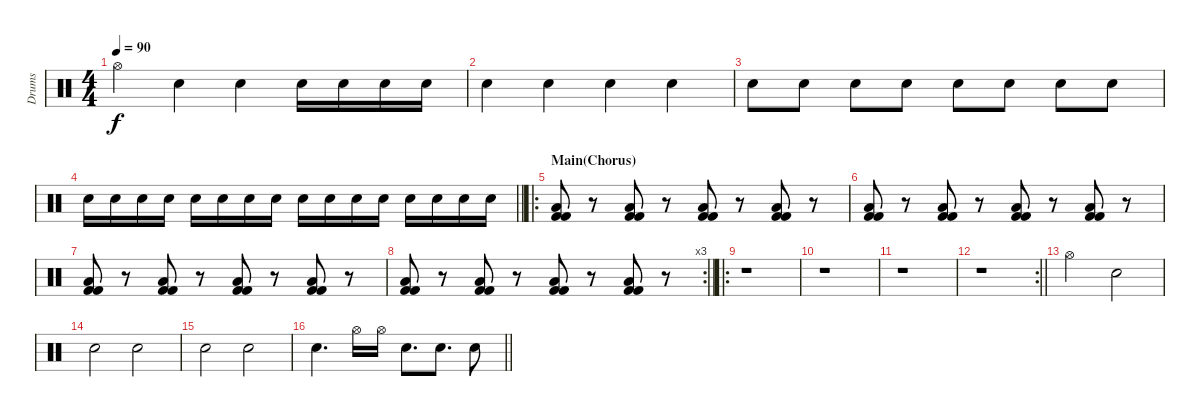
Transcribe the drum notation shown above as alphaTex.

\track ("Drums" "Drums") {instrument percussion}
\staff {score}
\articulation defaults
\ts (4 4)
\tempo 90
\clef neutral
\ks c "Hi-Hat (open)".4{dy f} "Snare (hit) 2".4 "Snare (hit) 2".4 "Snare (hit) 2".16 "Snare (hit) 2".16 "Snare (hit) 2".16 "Snare (hit) 2".16
|
"Snare (hit) 2".4 "Snare (hit) 2".4 "Snare (hit) 2".4 "Snare (hit) 2".4 |
"Snare (hit) 2".8 "Snare (hit) 2".8 "Snare (hit) 2".8 "Snare (hit) 2".8 "Snare (hit) 2".8 "Snare (hit) 2".8 "Snare (hit) 2".8 "Snare (hit) 2".8 |
\barLineRight lightlight "Snare (hit) 2".16 "Snare (hit) 2".16 "Snare (hit) 2".16 "Snare (hit) 2".16 "Snare (hit) 2".16 "Snare (hit) 2".16 "Snare (hit) 2".16 "Snare (hit) 2".16 "Snare (hit) 2".16 "Snare (hit) 2".16 "Snare (hit) 2".16 "Snare (hit) 2".16 "Snare (hit) 2".16 "Snare (hit) 2".16 "Snare (hit) 2".16 "Snare (hit) 2".16
|
\ro
\section ("" "Main(Chorus)")
("Kick (hit) 2" "Kick (hit) 2" "Low Floor Tom (hit)").8 r.8 ("Kick (hit) 2" "Kick (hit) 2" "Low Floor Tom (hit)").8 r.8 ("Kick (hit) 2" "Kick (hit) 2" "Low Floor Tom (hit)").8 r.8 ("Kick (hit) 2" "Kick (hit) 2" "Low Floor Tom (hit)").8 r.8 |
("Kick (hit) 2" "Kick (hit) 2" "Low Floor Tom (hit)").8 r.8 ("Kick (hit) 2" "Kick (hit) 2" "Low Floor Tom (hit)").8 r.8 ("Kick (hit) 2" "Kick (hit) 2" "Low Floor Tom (hit)").8 r.8 ("Kick (hit) 2" "Kick (hit) 2" "Low Floor Tom (hit)").8 r.8 |
("Kick (hit) 2" "Kick (hit) 2" "Low Floor Tom (hit)").8 r.8 ("Kick (hit) 2" "Kick (hit) 2" "Low Floor Tom (hit)").8 r.8 ("Kick (hit) 2" "Kick (hit) 2" "Low Floor Tom (hit)").8 r.8 ("Kick (hit) 2" "Kick (hit) 2" "Low Floor Tom (hit)").8 r.8 |
\rc 3
\barLineRight lightlight
("Kick (hit) 2" "Kick (hit) 2" "Low Floor Tom (hit)").8 r.8 ("Kick (hit) 2" "Kick (hit) 2" "Low Floor Tom (hit)").8 r.8 ("Kick (hit) 2" "Kick (hit) 2" "Low Floor Tom (hit)").8 r.8 ("Kick (hit) 2" "Kick (hit) 2" "Low Floor Tom (hit)").8 r.8 |
\ro
r.1 |
r.1 |
r.1 |
\rc 2
\barLineRight lightlight
r.1 |
"Hi-Hat (open)".2 "Snare (hit) 2".2 |
"Snare (hit) 2".2 "Snare (hit) 2".2 |
"Snare (hit) 2".2 "Snare (hit) 2".2 |
\barLineRight lightlight "Snare (hit) 2".4{d} "Hi-Hat (open)".16 "Hi-Hat (open)".16 "Snare (hit) 2".8{d} "Snare (hit) 2".8{d} "Snare (hit) 2".8
